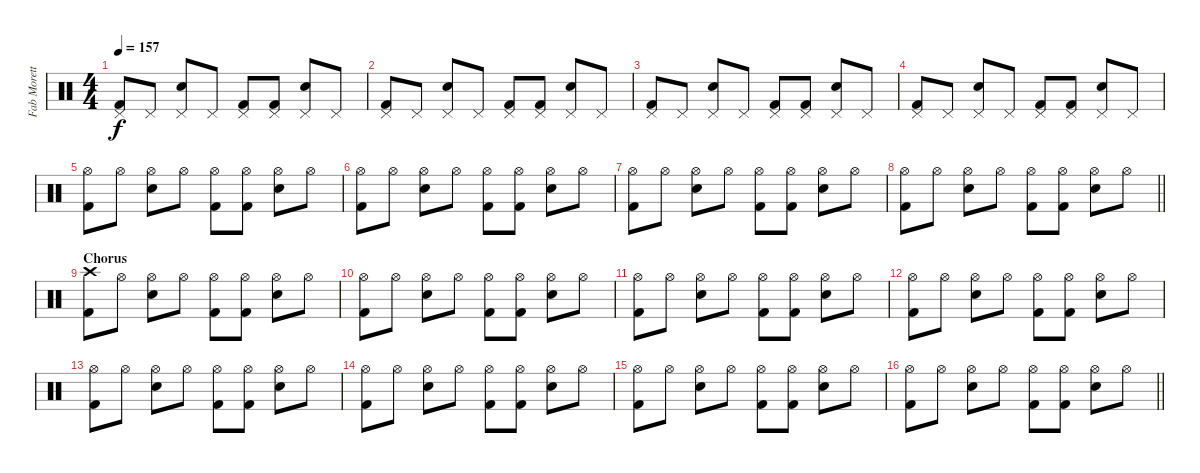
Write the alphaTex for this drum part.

\track ("Fab Moretti - Drums" "Fab Morett") {instrument percussion bank 177}
\staff {score}
\articulation defaults
\ts (4 4)
\tempo 157
\clef neutral
\ks c
("Pedal Hi-Hat (hit)" "Kick (hit) 2").8{dy f} "Pedal Hi-Hat (hit)".8 ("Pedal Hi-Hat (hit)" "Electric Snare (hit)").8 "Pedal Hi-Hat (hit)".8 ("Pedal Hi-Hat (hit)" "Kick (hit) 2").8 ("Pedal Hi-Hat (hit)" "Kick (hit) 2").8 ("Pedal Hi-Hat (hit)" "Electric Snare (hit)").8 "Pedal Hi-Hat (hit)".8 |
("Pedal Hi-Hat (hit)" "Kick (hit) 2").8 "Pedal Hi-Hat (hit)".8 ("Pedal Hi-Hat (hit)" "Electric Snare (hit)").8 "Pedal Hi-Hat (hit)".8 ("Pedal Hi-Hat (hit)" "Kick (hit) 2").8 ("Pedal Hi-Hat (hit)" "Kick (hit) 2").8 ("Pedal Hi-Hat (hit)" "Electric Snare (hit)").8 "Pedal Hi-Hat (hit)".8 |
("Pedal Hi-Hat (hit)" "Kick (hit) 2").8 "Pedal Hi-Hat (hit)".8 ("Pedal Hi-Hat (hit)" "Electric Snare (hit)").8 "Pedal Hi-Hat (hit)".8 ("Pedal Hi-Hat (hit)" "Kick (hit) 2").8 ("Pedal Hi-Hat (hit)" "Kick (hit) 2").8 ("Pedal Hi-Hat (hit)" "Electric Snare (hit)").8 "Pedal Hi-Hat (hit)".8 |
("Pedal Hi-Hat (hit)" "Kick (hit) 2").8 "Pedal Hi-Hat (hit)".8 ("Pedal Hi-Hat (hit)" "Electric Snare (hit)").8 "Pedal Hi-Hat (hit)".8 ("Pedal Hi-Hat (hit)" "Kick (hit) 2").8 ("Pedal Hi-Hat (hit)" "Kick (hit) 2").8 ("Pedal Hi-Hat (hit)" "Electric Snare (hit)").8 "Pedal Hi-Hat (hit)".8 |
("Hi-Hat (open)" "Kick (hit) 2").8 "Hi-Hat (open)".8 ("Hi-Hat (open)" "Electric Snare (hit)").8 "Hi-Hat (open)".8 ("Hi-Hat (open)" "Kick (hit) 2").8 ("Hi-Hat (open)" "Kick (hit) 2").8 ("Hi-Hat (open)" "Electric Snare (hit)").8 "Hi-Hat (open)".8 |
("Hi-Hat (open)" "Kick (hit) 2").8 "Hi-Hat (open)".8 ("Hi-Hat (open)" "Electric Snare (hit)").8 "Hi-Hat (open)".8 ("Hi-Hat (open)" "Kick (hit) 2").8 ("Hi-Hat (open)" "Kick (hit) 2").8 ("Hi-Hat (open)" "Electric Snare (hit)").8 "Hi-Hat (open)".8 |
("Hi-Hat (open)" "Kick (hit) 2").8 "Hi-Hat (open)".8 ("Hi-Hat (open)" "Electric Snare (hit)").8 "Hi-Hat (open)".8 ("Hi-Hat (open)" "Kick (hit) 2").8 ("Hi-Hat (open)" "Kick (hit) 2").8 ("Hi-Hat (open)" "Electric Snare (hit)").8 "Hi-Hat (open)".8 |
\barLineRight lightlight
("Hi-Hat (open)" "Kick (hit) 2").8 "Hi-Hat (open)".8 ("Hi-Hat (open)" "Electric Snare (hit)").8 "Hi-Hat (open)".8 ("Hi-Hat (open)" "Kick (hit) 2").8 ("Hi-Hat (open)" "Kick (hit) 2").8 ("Hi-Hat (open)" "Electric Snare (hit)").8 "Hi-Hat (open)".8 |
\section ("" "Chorus")
("Crash high (hit)" "Kick (hit) 2").8 "Hi-Hat (open)".8 ("Hi-Hat (open)" "Electric Snare (hit)").8 "Hi-Hat (open)".8 ("Hi-Hat (open)" "Kick (hit) 2").8 ("Hi-Hat (open)" "Kick (hit) 2").8 ("Hi-Hat (open)" "Electric Snare (hit)").8 "Hi-Hat (open)".8 |
("Hi-Hat (open)" "Kick (hit) 2").8 "Hi-Hat (open)".8 ("Hi-Hat (open)" "Electric Snare (hit)").8 "Hi-Hat (open)".8 ("Hi-Hat (open)" "Kick (hit) 2").8 ("Hi-Hat (open)" "Kick (hit) 2").8 ("Hi-Hat (open)" "Electric Snare (hit)").8 "Hi-Hat (open)".8 |
("Hi-Hat (open)" "Kick (hit) 2").8 "Hi-Hat (open)".8 ("Hi-Hat (open)" "Electric Snare (hit)").8 "Hi-Hat (open)".8 ("Hi-Hat (open)" "Kick (hit) 2").8 ("Hi-Hat (open)" "Kick (hit) 2").8 ("Hi-Hat (open)" "Electric Snare (hit)").8 "Hi-Hat (open)".8 |
("Hi-Hat (open)" "Kick (hit) 2").8 "Hi-Hat (open)".8 ("Hi-Hat (open)" "Electric Snare (hit)").8 "Hi-Hat (open)".8 ("Hi-Hat (open)" "Kick (hit) 2").8 ("Hi-Hat (open)" "Kick (hit) 2").8 ("Hi-Hat (open)" "Electric Snare (hit)").8 "Hi-Hat (open)".8 |
("Hi-Hat (open)" "Kick (hit) 2").8 "Hi-Hat (open)".8 ("Hi-Hat (open)" "Electric Snare (hit)").8 "Hi-Hat (open)".8 ("Hi-Hat (open)" "Kick (hit) 2").8 ("Hi-Hat (open)" "Kick (hit) 2").8 ("Hi-Hat (open)" "Electric Snare (hit)").8 "Hi-Hat (open)".8 |
("Hi-Hat (open)" "Kick (hit) 2").8 "Hi-Hat (open)".8 ("Hi-Hat (open)" "Electric Snare (hit)").8 "Hi-Hat (open)".8 ("Hi-Hat (open)" "Kick (hit) 2").8 ("Hi-Hat (open)" "Kick (hit) 2").8 ("Hi-Hat (open)" "Electric Snare (hit)").8 "Hi-Hat (open)".8 |
("Hi-Hat (open)" "Kick (hit) 2").8 "Hi-Hat (open)".8 ("Hi-Hat (open)" "Electric Snare (hit)").8 "Hi-Hat (open)".8 ("Hi-Hat (open)" "Kick (hit) 2").8 ("Hi-Hat (open)" "Kick (hit) 2").8 ("Hi-Hat (open)" "Electric Snare (hit)").8 "Hi-Hat (open)".8 |
\barLineRight lightlight
("Hi-Hat (open)" "Kick (hit) 2").8 "Hi-Hat (open)".8 ("Hi-Hat (open)" "Electric Snare (hit)").8 "Hi-Hat (open)".8 ("Hi-Hat (open)" "Kick (hit) 2").8 ("Hi-Hat (open)" "Kick (hit) 2").8 ("Hi-Hat (open)" "Electric Snare (hit)").8 "Hi-Hat (open)".8
